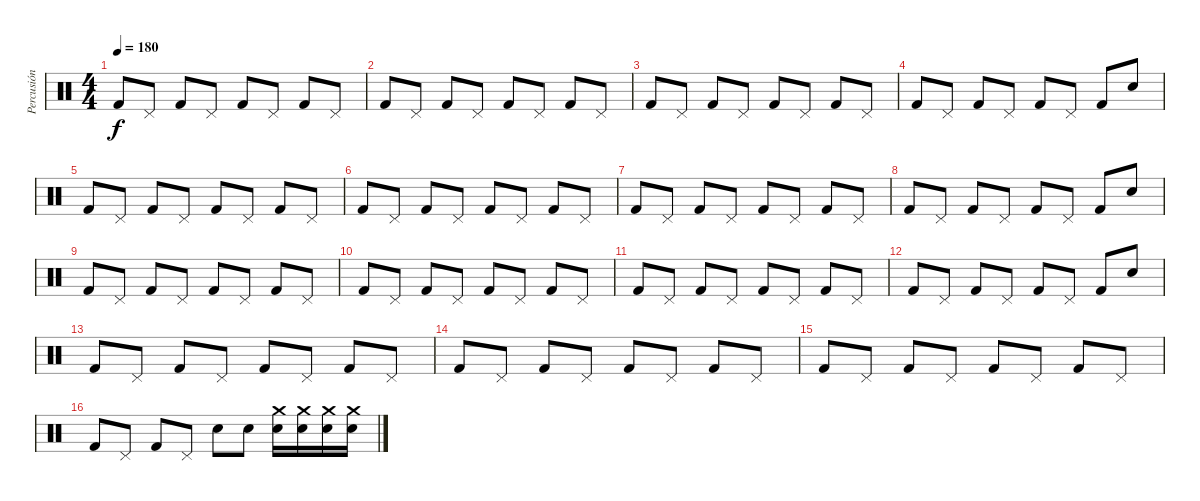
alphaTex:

\track ("Percusión" "Percusión") {instrument percussion}
\staff {score}
\articulation defaults
\ts (4 4)
\tempo 180
\clef neutral
\ks c "Kick (hit) 2".8{dy f} "Pedal Hi-Hat (hit)".8 "Kick (hit) 2".8 "Pedal Hi-Hat (hit)".8 "Kick (hit) 2".8 "Pedal Hi-Hat (hit)".8 "Kick (hit) 2".8 "Pedal Hi-Hat (hit)".8
|
"Kick (hit) 2".8 "Pedal Hi-Hat (hit)".8 "Kick (hit) 2".8 "Pedal Hi-Hat (hit)".8 "Kick (hit) 2".8 "Pedal Hi-Hat (hit)".8 "Kick (hit) 2".8 "Pedal Hi-Hat (hit)".8 |
"Kick (hit) 2".8 "Pedal Hi-Hat (hit)".8 "Kick (hit) 2".8 "Pedal Hi-Hat (hit)".8 "Kick (hit) 2".8 "Pedal Hi-Hat (hit)".8 "Kick (hit) 2".8 "Pedal Hi-Hat (hit)".8 |
"Kick (hit) 2".8 "Pedal Hi-Hat (hit)".8 "Kick (hit) 2".8 "Pedal Hi-Hat (hit)".8 "Kick (hit) 2".8 "Pedal Hi-Hat (hit)".8 "Kick (hit) 2".8 "Snare (hit) 2".8 |
"Kick (hit) 2".8 "Pedal Hi-Hat (hit)".8 "Kick (hit) 2".8 "Pedal Hi-Hat (hit)".8 "Kick (hit) 2".8 "Pedal Hi-Hat (hit)".8 "Kick (hit) 2".8 "Pedal Hi-Hat (hit)".8 |
"Kick (hit) 2".8 "Pedal Hi-Hat (hit)".8 "Kick (hit) 2".8 "Pedal Hi-Hat (hit)".8 "Kick (hit) 2".8 "Pedal Hi-Hat (hit)".8 "Kick (hit) 2".8 "Pedal Hi-Hat (hit)".8 |
"Kick (hit) 2".8 "Pedal Hi-Hat (hit)".8 "Kick (hit) 2".8 "Pedal Hi-Hat (hit)".8 "Kick (hit) 2".8 "Pedal Hi-Hat (hit)".8 "Kick (hit) 2".8 "Pedal Hi-Hat (hit)".8 |
"Kick (hit) 2".8 "Pedal Hi-Hat (hit)".8 "Kick (hit) 2".8 "Pedal Hi-Hat (hit)".8 "Kick (hit) 2".8 "Pedal Hi-Hat (hit)".8 "Kick (hit) 2".8 "Snare (hit) 2".8 |
"Kick (hit) 2".8 "Pedal Hi-Hat (hit)".8 "Kick (hit) 2".8 "Pedal Hi-Hat (hit)".8 "Kick (hit) 2".8 "Pedal Hi-Hat (hit)".8 "Kick (hit) 2".8 "Pedal Hi-Hat (hit)".8 |
"Kick (hit) 2".8 "Pedal Hi-Hat (hit)".8 "Kick (hit) 2".8 "Pedal Hi-Hat (hit)".8 "Kick (hit) 2".8 "Pedal Hi-Hat (hit)".8 "Kick (hit) 2".8 "Pedal Hi-Hat (hit)".8 |
"Kick (hit) 2".8 "Pedal Hi-Hat (hit)".8 "Kick (hit) 2".8 "Pedal Hi-Hat (hit)".8 "Kick (hit) 2".8 "Pedal Hi-Hat (hit)".8 "Kick (hit) 2".8 "Pedal Hi-Hat (hit)".8 |
"Kick (hit) 2".8 "Pedal Hi-Hat (hit)".8 "Kick (hit) 2".8 "Pedal Hi-Hat (hit)".8 "Kick (hit) 2".8 "Pedal Hi-Hat (hit)".8 "Kick (hit) 2".8 "Snare (hit) 2".8 |
"Kick (hit) 2".8 "Pedal Hi-Hat (hit)".8 "Kick (hit) 2".8 "Pedal Hi-Hat (hit)".8 "Kick (hit) 2".8 "Pedal Hi-Hat (hit)".8 "Kick (hit) 2".8 "Pedal Hi-Hat (hit)".8 |
"Kick (hit) 2".8 "Pedal Hi-Hat (hit)".8 "Kick (hit) 2".8 "Pedal Hi-Hat (hit)".8 "Kick (hit) 2".8 "Pedal Hi-Hat (hit)".8 "Kick (hit) 2".8 "Pedal Hi-Hat (hit)".8 |
"Kick (hit) 2".8 "Pedal Hi-Hat (hit)".8 "Kick (hit) 2".8 "Pedal Hi-Hat (hit)".8 "Kick (hit) 2".8 "Pedal Hi-Hat (hit)".8 "Kick (hit) 2".8 "Pedal Hi-Hat (hit)".8 |
"Kick (hit) 2".8 "Pedal Hi-Hat (hit)".8 "Kick (hit) 2".8 "Pedal Hi-Hat (hit)".8 "Snare (hit) 2".8 "Snare (hit) 2".8 ("Snare (hit) 2" "Crash medium (hit)").16 ("Snare (hit) 2" "Crash medium (hit)").16 ("Snare (hit) 2" "Crash medium (hit)").16 ("Snare (hit) 2" "Crash medium (hit)").16
